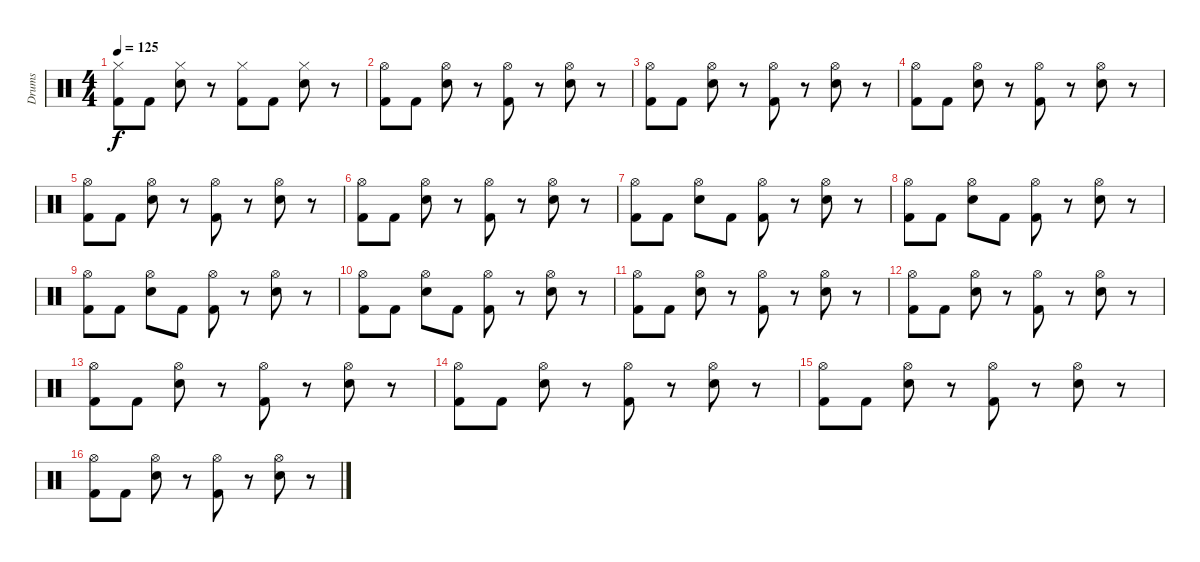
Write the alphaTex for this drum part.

\track ("Drums" "Drums") {instrument percussion}
\staff {score}
\articulation defaults
\ts (4 4)
\tempo 125
\clef neutral
\ks c
("Hi-Hat (closed)" "Kick (hit) 2").8{dy f} "Kick (hit) 2".8 ("Hi-Hat (closed)" "Electric Snare (hit)").8 r.8 ("Hi-Hat (closed)" "Kick (hit) 2").8 "Kick (hit) 2".8 ("Hi-Hat (closed)" "Electric Snare (hit)").8 r.8 |
("Hi-Hat (open)" "Kick (hit) 2").8 "Kick (hit) 2".8 ("Hi-Hat (open)" "Electric Snare (hit)").8 r.8 ("Hi-Hat (open)" "Kick (hit) 2").8 r.8 ("Hi-Hat (open)" "Electric Snare (hit)").8 r.8 |
("Hi-Hat (open)" "Kick (hit) 2").8 "Kick (hit) 2".8 ("Hi-Hat (open)" "Electric Snare (hit)").8 r.8 ("Hi-Hat (open)" "Kick (hit) 2").8 r.8 ("Hi-Hat (open)" "Electric Snare (hit)").8 r.8 |
("Hi-Hat (open)" "Kick (hit) 2").8 "Kick (hit) 2".8 ("Hi-Hat (open)" "Electric Snare (hit)").8 r.8 ("Hi-Hat (open)" "Kick (hit) 2").8 r.8 ("Hi-Hat (open)" "Electric Snare (hit)").8 r.8 |
("Hi-Hat (open)" "Kick (hit) 2").8 "Kick (hit) 2".8 ("Hi-Hat (open)" "Electric Snare (hit)").8 r.8 ("Hi-Hat (open)" "Kick (hit) 2").8 r.8 ("Hi-Hat (open)" "Electric Snare (hit)").8 r.8 |
("Hi-Hat (open)" "Kick (hit) 2").8 "Kick (hit) 2".8 ("Hi-Hat (open)" "Electric Snare (hit)").8 r.8 ("Hi-Hat (open)" "Kick (hit) 2").8 r.8 ("Hi-Hat (open)" "Electric Snare (hit)").8 r.8 |
("Hi-Hat (open)" "Kick (hit) 2").8 "Kick (hit) 2".8 ("Hi-Hat (open)" "Electric Snare (hit)").8 "Kick (hit) 2".8 ("Hi-Hat (open)" "Kick (hit) 2").8 r.8 ("Hi-Hat (open)" "Electric Snare (hit)").8 r.8 |
("Hi-Hat (open)" "Kick (hit) 2").8 "Kick (hit) 2".8 ("Hi-Hat (open)" "Electric Snare (hit)").8 "Kick (hit) 2".8 ("Hi-Hat (open)" "Kick (hit) 2").8 r.8 ("Hi-Hat (open)" "Electric Snare (hit)").8 r.8 |
("Hi-Hat (open)" "Kick (hit) 2").8 "Kick (hit) 2".8 ("Hi-Hat (open)" "Electric Snare (hit)").8 "Kick (hit) 2".8 ("Hi-Hat (open)" "Kick (hit) 2").8 r.8 ("Hi-Hat (open)" "Electric Snare (hit)").8 r.8 |
("Hi-Hat (open)" "Kick (hit) 2").8 "Kick (hit) 2".8 ("Hi-Hat (open)" "Electric Snare (hit)").8 "Kick (hit) 2".8 ("Hi-Hat (open)" "Kick (hit) 2").8 r.8 ("Hi-Hat (open)" "Electric Snare (hit)").8 r.8 |
("Hi-Hat (open)" "Kick (hit) 2").8 "Kick (hit) 2".8 ("Hi-Hat (open)" "Electric Snare (hit)").8 r.8 ("Hi-Hat (open)" "Kick (hit) 2").8 r.8 ("Hi-Hat (open)" "Electric Snare (hit)").8 r.8 |
("Hi-Hat (open)" "Kick (hit) 2").8 "Kick (hit) 2".8 ("Hi-Hat (open)" "Electric Snare (hit)").8 r.8 ("Hi-Hat (open)" "Kick (hit) 2").8 r.8 ("Hi-Hat (open)" "Electric Snare (hit)").8 r.8 |
("Hi-Hat (open)" "Kick (hit) 2").8 "Kick (hit) 2".8 ("Hi-Hat (open)" "Electric Snare (hit)").8 r.8 ("Hi-Hat (open)" "Kick (hit) 2").8 r.8 ("Hi-Hat (open)" "Electric Snare (hit)").8 r.8 |
("Hi-Hat (open)" "Kick (hit) 2").8 "Kick (hit) 2".8 ("Hi-Hat (open)" "Electric Snare (hit)").8 r.8 ("Hi-Hat (open)" "Kick (hit) 2").8 r.8 ("Hi-Hat (open)" "Electric Snare (hit)").8 r.8 |
("Hi-Hat (open)" "Kick (hit) 2").8 "Kick (hit) 2".8 ("Hi-Hat (open)" "Electric Snare (hit)").8 r.8 ("Hi-Hat (open)" "Kick (hit) 2").8 r.8 ("Hi-Hat (open)" "Electric Snare (hit)").8 r.8 |
("Hi-Hat (open)" "Kick (hit) 2").8 "Kick (hit) 2".8 ("Hi-Hat (open)" "Electric Snare (hit)").8 r.8 ("Hi-Hat (open)" "Kick (hit) 2").8 r.8 ("Hi-Hat (open)" "Electric Snare (hit)").8 r.8
